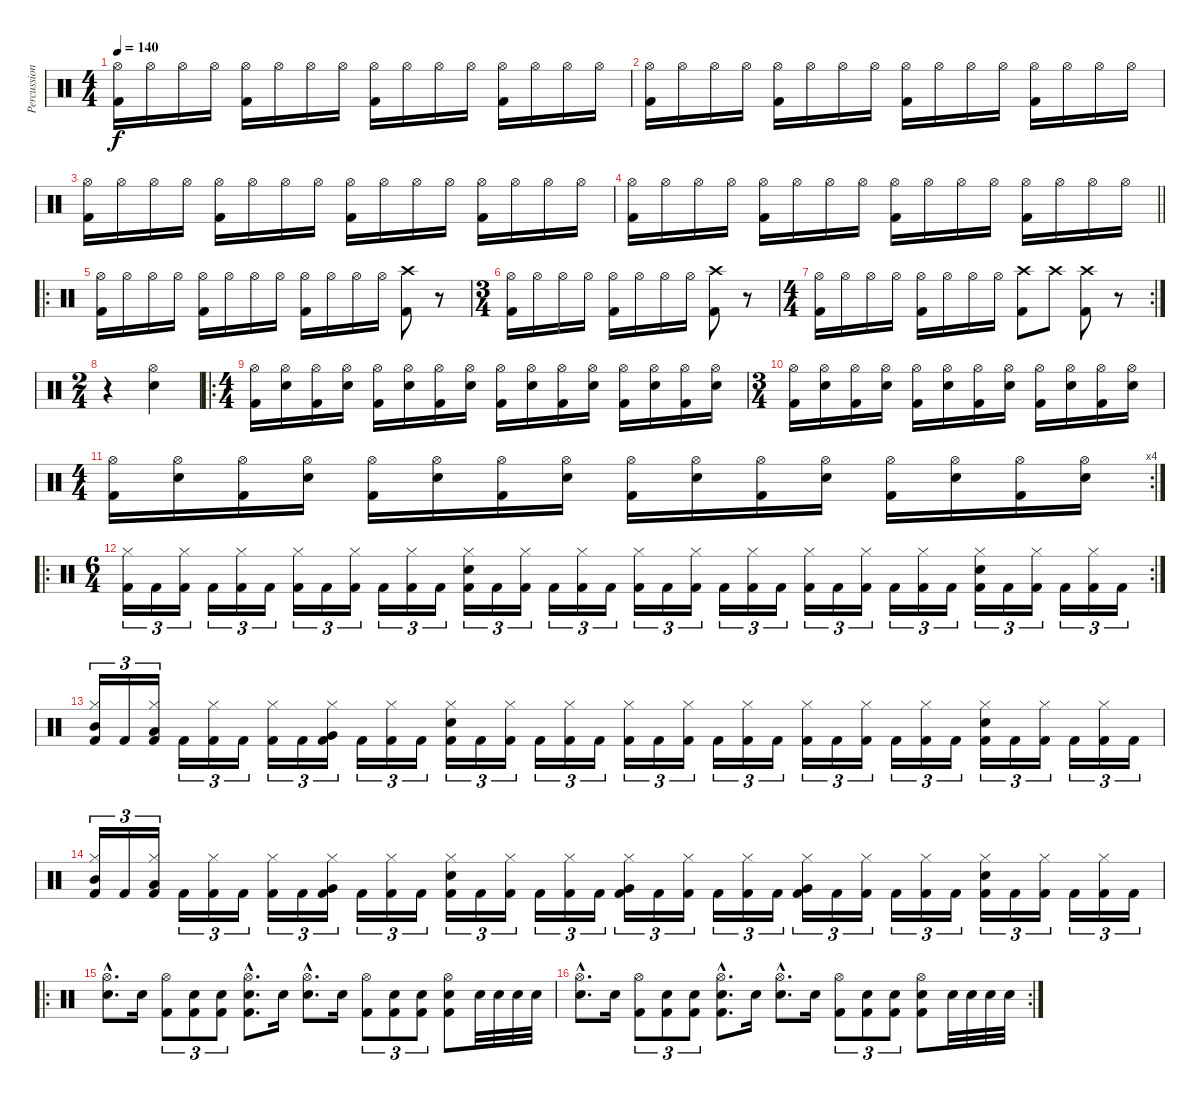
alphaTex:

\track ("Percussion" "Percussion") {instrument percussion}
\staff {score}
\articulation defaults
\ts (4 4)
\tempo 140
\clef neutral
\ks c
("Hi-Hat (open)" "Kick (hit) 2").16{dy f} "Hi-Hat (open)".16 "Hi-Hat (open)".16 "Hi-Hat (open)".16 ("Hi-Hat (open)" "Kick (hit) 2").16 "Hi-Hat (open)".16 "Hi-Hat (open)".16 "Hi-Hat (open)".16 ("Hi-Hat (open)" "Kick (hit) 2").16 "Hi-Hat (open)".16 "Hi-Hat (open)".16 "Hi-Hat (open)".16 ("Hi-Hat (open)" "Kick (hit) 2").16 "Hi-Hat (open)".16 "Hi-Hat (open)".16 "Hi-Hat (open)".16 |
("Hi-Hat (open)" "Kick (hit) 2").16 "Hi-Hat (open)".16 "Hi-Hat (open)".16 "Hi-Hat (open)".16 ("Hi-Hat (open)" "Kick (hit) 2").16 "Hi-Hat (open)".16 "Hi-Hat (open)".16 "Hi-Hat (open)".16 ("Hi-Hat (open)" "Kick (hit) 2").16 "Hi-Hat (open)".16 "Hi-Hat (open)".16 "Hi-Hat (open)".16 ("Hi-Hat (open)" "Kick (hit) 2").16 "Hi-Hat (open)".16 "Hi-Hat (open)".16 "Hi-Hat (open)".16 |
("Hi-Hat (open)" "Kick (hit) 2").16 "Hi-Hat (open)".16 "Hi-Hat (open)".16 "Hi-Hat (open)".16 ("Hi-Hat (open)" "Kick (hit) 2").16 "Hi-Hat (open)".16 "Hi-Hat (open)".16 "Hi-Hat (open)".16 ("Hi-Hat (open)" "Kick (hit) 2").16 "Hi-Hat (open)".16 "Hi-Hat (open)".16 "Hi-Hat (open)".16 ("Hi-Hat (open)" "Kick (hit) 2").16 "Hi-Hat (open)".16 "Hi-Hat (open)".16 "Hi-Hat (open)".16 |
\barLineRight lightlight
("Hi-Hat (open)" "Kick (hit) 2").16 "Hi-Hat (open)".16 "Hi-Hat (open)".16 "Hi-Hat (open)".16 ("Hi-Hat (open)" "Kick (hit) 2").16 "Hi-Hat (open)".16 "Hi-Hat (open)".16 "Hi-Hat (open)".16 ("Hi-Hat (open)" "Kick (hit) 2").16 "Hi-Hat (open)".16 "Hi-Hat (open)".16 "Hi-Hat (open)".16 ("Hi-Hat (open)" "Kick (hit) 2").16 "Hi-Hat (open)".16 "Hi-Hat (open)".16 "Hi-Hat (open)".16 |
\ro
("Hi-Hat (open)" "Kick (hit) 2").16 "Hi-Hat (open)".16 "Hi-Hat (open)".16 "Hi-Hat (open)".16 ("Hi-Hat (open)" "Kick (hit) 2").16 "Hi-Hat (open)".16 "Hi-Hat (open)".16 "Hi-Hat (open)".16 ("Hi-Hat (open)" "Kick (hit) 2").16 "Hi-Hat (open)".16 "Hi-Hat (open)".16 "Hi-Hat (open)".16 ("Crash high (hit)" "Kick (hit) 2").8 r.8 |
\ts (3 4)
("Hi-Hat (open)" "Kick (hit) 2").16 "Hi-Hat (open)".16 "Hi-Hat (open)".16 "Hi-Hat (open)".16 ("Hi-Hat (open)" "Kick (hit) 2").16 "Hi-Hat (open)".16 "Hi-Hat (open)".16 "Hi-Hat (open)".16 ("Crash high (hit)" "Kick (hit) 2").8 r.8 |
\rc 2
\ts (4 4)
("Hi-Hat (open)" "Kick (hit) 2").16 "Hi-Hat (open)".16 "Hi-Hat (open)".16 "Hi-Hat (open)".16 ("Hi-Hat (open)" "Kick (hit) 2").16 "Hi-Hat (open)".16 "Hi-Hat (open)".16 "Hi-Hat (open)".16 ("Crash high (hit)" "Kick (hit) 2").8 "Crash high (hit)".8 ("Crash high (hit)" "Kick (hit) 2").8 r.8 |
\ts (2 4)
r.4 ("Hi-Hat (open)" "Snare (hit) 2").4 |
\ro
\ts (4 4)
("Hi-Hat (open)" "Kick (hit) 2").16 ("Hi-Hat (open)" "Snare (hit) 2").16 ("Hi-Hat (open)" "Kick (hit) 2").16 ("Hi-Hat (open)" "Snare (hit) 2").16 ("Hi-Hat (open)" "Kick (hit) 2").16 ("Hi-Hat (open)" "Snare (hit) 2").16 ("Hi-Hat (open)" "Kick (hit) 2").16 ("Hi-Hat (open)" "Snare (hit) 2").16 ("Hi-Hat (open)" "Kick (hit) 2").16 ("Hi-Hat (open)" "Snare (hit) 2").16 ("Hi-Hat (open)" "Kick (hit) 2").16 ("Hi-Hat (open)" "Snare (hit) 2").16 ("Hi-Hat (open)" "Kick (hit) 2").16 ("Hi-Hat (open)" "Snare (hit) 2").16 ("Hi-Hat (open)" "Kick (hit) 2").16 ("Hi-Hat (open)" "Snare (hit) 2").16 |
\ts (3 4)
("Hi-Hat (open)" "Kick (hit) 2").16 ("Hi-Hat (open)" "Snare (hit) 2").16 ("Hi-Hat (open)" "Kick (hit) 2").16 ("Hi-Hat (open)" "Snare (hit) 2").16 ("Hi-Hat (open)" "Kick (hit) 2").16 ("Hi-Hat (open)" "Snare (hit) 2").16 ("Hi-Hat (open)" "Kick (hit) 2").16 ("Hi-Hat (open)" "Snare (hit) 2").16 ("Hi-Hat (open)" "Kick (hit) 2").16 ("Hi-Hat (open)" "Snare (hit) 2").16 ("Hi-Hat (open)" "Kick (hit) 2").16 ("Hi-Hat (open)" "Snare (hit) 2").16 |
\rc 4
\ts (4 4)
("Hi-Hat (open)" "Kick (hit) 2").16 ("Hi-Hat (open)" "Snare (hit) 2").16 ("Hi-Hat (open)" "Kick (hit) 2").16 ("Hi-Hat (open)" "Snare (hit) 2").16 ("Hi-Hat (open)" "Kick (hit) 2").16 ("Hi-Hat (open)" "Snare (hit) 2").16 ("Hi-Hat (open)" "Kick (hit) 2").16 ("Hi-Hat (open)" "Snare (hit) 2").16 ("Hi-Hat (open)" "Kick (hit) 2").16 ("Hi-Hat (open)" "Snare (hit) 2").16 ("Hi-Hat (open)" "Kick (hit) 2").16 ("Hi-Hat (open)" "Snare (hit) 2").16 ("Hi-Hat (open)" "Kick (hit) 2").16 ("Hi-Hat (open)" "Snare (hit) 2").16 ("Hi-Hat (open)" "Kick (hit) 2").16 ("Hi-Hat (open)" "Snare (hit) 2").16 |
\ro
\rc 2
\ts (6 4)
("Hi-Hat (closed)" "Kick (hit) 2").16{tu (3 2)} "Kick (hit) 2".16{tu (3 2)} ("Hi-Hat (closed)" "Kick (hit) 2").16{tu (3 2)} "Kick (hit) 2".16{tu (3 2)} ("Hi-Hat (closed)" "Kick (hit) 2").16{tu (3 2)} "Kick (hit) 2".16{tu (3 2)} ("Hi-Hat (closed)" "Kick (hit) 2").16{tu (3 2)} "Kick (hit) 2".16{tu (3 2)} ("Hi-Hat (closed)" "Kick (hit) 2").16{tu (3 2)} "Kick (hit) 2".16{tu (3 2)} ("Hi-Hat (closed)" "Kick (hit) 2").16{tu (3 2)} "Kick (hit) 2".16{tu (3 2)} ("Hi-Hat (closed)" "Snare (hit) 2" "Kick (hit) 2").16{tu (3 2)} "Kick (hit) 2".16{tu (3 2)} ("Hi-Hat (closed)" "Kick (hit) 2").16{tu (3 2)} "Kick (hit) 2".16{tu (3 2)} ("Hi-Hat (closed)" "Kick (hit) 2").16{tu (3 2)} "Kick (hit) 2".16{tu (3 2)} ("Hi-Hat (closed)" "Kick (hit) 2").16{tu (3 2)} "Kick (hit) 2".16{tu (3 2)} ("Hi-Hat (closed)" "Kick (hit) 2").16{tu (3 2)} "Kick (hit) 2".16{tu (3 2)} ("Hi-Hat (closed)" "Kick (hit) 2").16{tu (3 2)} "Kick (hit) 2".16{tu (3 2)} ("Hi-Hat (closed)" "Kick (hit) 2").16{tu (3 2)} "Kick (hit) 2".16{tu (3 2)} ("Hi-Hat (closed)" "Kick (hit) 2").16{tu (3 2)} "Kick (hit) 2".16{tu (3 2)} ("Hi-Hat (closed)" "Kick (hit) 2").16{tu (3 2)} "Kick (hit) 2".16{tu (3 2)} ("Hi-Hat (closed)" "Snare (hit) 2" "Kick (hit) 2").16{tu (3 2)} "Kick (hit) 2".16{tu (3 2)} ("Hi-Hat (closed)" "Kick (hit) 2").16{tu (3 2)} "Kick (hit) 2".16{tu (3 2)} ("Hi-Hat (closed)" "Kick (hit) 2").16{tu (3 2)} "Kick (hit) 2".16{tu (3 2)} |
("Hi-Hat (closed)" "Mid Tom (hit)" "Kick (hit) 2").16{tu (3 2)} "Kick (hit) 2".16{tu (3 2)} ("Hi-Hat (closed)" "Low Tom (hit)" "Kick (hit) 2").16{tu (3 2)} "Kick (hit) 2".16{tu (3 2)} ("Hi-Hat (closed)" "Kick (hit) 2").16{tu (3 2)} "Kick (hit) 2".16{tu (3 2)} ("Hi-Hat (closed)" "Kick (hit) 2").16{tu (3 2)} "Kick (hit) 2".16{tu (3 2)} ("Hi-Hat (closed)" "Very Low Tom (hit)" "Kick (hit) 2").16{tu (3 2)} "Kick (hit) 2".16{tu (3 2)} ("Hi-Hat (closed)" "Kick (hit) 2").16{tu (3 2)} "Kick (hit) 2".16{tu (3 2)} ("Hi-Hat (closed)" "Snare (hit) 2" "Kick (hit) 2").16{tu (3 2)} "Kick (hit) 2".16{tu (3 2)} ("Hi-Hat (closed)" "Kick (hit) 2").16{tu (3 2)} "Kick (hit) 2".16{tu (3 2)} ("Hi-Hat (closed)" "Kick (hit) 2").16{tu (3 2)} "Kick (hit) 2".16{tu (3 2)} ("Hi-Hat (closed)" "Kick (hit) 2").16{tu (3 2)} "Kick (hit) 2".16{tu (3 2)} ("Hi-Hat (closed)" "Kick (hit) 2").16{tu (3 2)} "Kick (hit) 2".16{tu (3 2)} ("Hi-Hat (closed)" "Kick (hit) 2").16{tu (3 2)} "Kick (hit) 2".16{tu (3 2)} ("Hi-Hat (closed)" "Kick (hit) 2").16{tu (3 2)} "Kick (hit) 2".16{tu (3 2)} ("Hi-Hat (closed)" "Kick (hit) 2").16{tu (3 2)} "Kick (hit) 2".16{tu (3 2)} ("Hi-Hat (closed)" "Kick (hit) 2").16{tu (3 2)} "Kick (hit) 2".16{tu (3 2)} ("Hi-Hat (closed)" "Snare (hit) 2" "Kick (hit) 2").16{tu (3 2)} "Kick (hit) 2".16{tu (3 2)} ("Hi-Hat (closed)" "Kick (hit) 2").16{tu (3 2)} "Kick (hit) 2".16{tu (3 2)} ("Hi-Hat (closed)" "Kick (hit) 2").16{tu (3 2)} "Kick (hit) 2".16{tu (3 2)} |
("Hi-Hat (closed)" "Mid Tom (hit)" "Kick (hit) 2").16{tu (3 2)} "Kick (hit) 2".16{tu (3 2)} ("Hi-Hat (closed)" "Low Tom (hit)" "Kick (hit) 2").16{tu (3 2)} "Kick (hit) 2".16{tu (3 2)} ("Hi-Hat (closed)" "Kick (hit) 2").16{tu (3 2)} "Kick (hit) 2".16{tu (3 2)} ("Hi-Hat (closed)" "Kick (hit) 2").16{tu (3 2)} "Kick (hit) 2".16{tu (3 2)} ("Hi-Hat (closed)" "Very Low Tom (hit)" "Kick (hit) 2").16{tu (3 2)} "Kick (hit) 2".16{tu (3 2)} ("Hi-Hat (closed)" "Kick (hit) 2").16{tu (3 2)} "Kick (hit) 2".16{tu (3 2)} ("Hi-Hat (closed)" "Snare (hit) 2" "Kick (hit) 2").16{tu (3 2)} "Kick (hit) 2".16{tu (3 2)} ("Hi-Hat (closed)" "Kick (hit) 2").16{tu (3 2)} "Kick (hit) 2".16{tu (3 2)} ("Hi-Hat (closed)" "Kick (hit) 2").16{tu (3 2)} "Kick (hit) 2".16{tu (3 2)} ("Hi-Hat (closed)" "Very Low Tom (hit)" "Kick (hit) 2").16{tu (3 2)} "Kick (hit) 2".16{tu (3 2)} ("Hi-Hat (closed)" "Kick (hit) 2").16{tu (3 2)} "Kick (hit) 2".16{tu (3 2)} ("Hi-Hat (closed)" "Kick (hit) 2").16{tu (3 2)} "Kick (hit) 2".16{tu (3 2)} ("Hi-Hat (closed)" "Very Low Tom (hit)" "Kick (hit) 2").16{tu (3 2)} "Kick (hit) 2".16{tu (3 2)} ("Hi-Hat (closed)" "Kick (hit) 2").16{tu (3 2)} "Kick (hit) 2".16{tu (3 2)} ("Hi-Hat (closed)" "Kick (hit) 2").16{tu (3 2)} "Kick (hit) 2".16{tu (3 2)} ("Hi-Hat (closed)" "Snare (hit) 2" "Kick (hit) 2").16{tu (3 2)} "Kick (hit) 2".16{tu (3 2)} ("Hi-Hat (closed)" "Kick (hit) 2").16{tu (3 2)} "Kick (hit) 2".16{tu (3 2)} ("Hi-Hat (closed)" "Kick (hit) 2").16{tu (3 2)} "Kick (hit) 2".16{tu (3 2)} |
\ro
("Hi-Hat (open)"{hac} "Snare (hit) 2"{hac}).8{d} "Snare (hit) 2".16 ("Hi-Hat (open)" "Kick (hit) 2").8{tu (3 2)} ("Snare (hit) 2" "Kick (hit) 2").8{tu (3 2)} ("Snare (hit) 2" "Kick (hit) 2").8{tu (3 2)} ("Hi-Hat (open)"{hac} "Snare (hit) 2"{hac} "Kick (hit) 2"{hac}).8{d} "Snare (hit) 2".16 ("Hi-Hat (open)"{hac} "Snare (hit) 2"{hac}).8{d} "Snare (hit) 2".16 ("Hi-Hat (open)" "Kick (hit) 2").8{tu (3 2)} ("Snare (hit) 2" "Kick (hit) 2").8{tu (3 2)} ("Snare (hit) 2" "Kick (hit) 2").8{tu (3 2)} ("Hi-Hat (open)" "Snare (hit) 2" "Kick (hit) 2").8 "Snare (hit) 2".32 "Snare (hit) 2".32 "Snare (hit) 2".32 "Snare (hit) 2".32 |
\rc 2
("Hi-Hat (open)"{hac} "Snare (hit) 2"{hac}).8{d} "Snare (hit) 2".16 ("Hi-Hat (open)" "Kick (hit) 2").8{tu (3 2)} ("Snare (hit) 2" "Kick (hit) 2").8{tu (3 2)} ("Snare (hit) 2" "Kick (hit) 2").8{tu (3 2)} ("Hi-Hat (open)"{hac} "Snare (hit) 2"{hac} "Kick (hit) 2"{hac}).8{d} "Snare (hit) 2".16 ("Hi-Hat (open)"{hac} "Snare (hit) 2"{hac}).8{d} "Snare (hit) 2".16 ("Hi-Hat (open)" "Kick (hit) 2").8{tu (3 2)} ("Snare (hit) 2" "Kick (hit) 2").8{tu (3 2)} ("Snare (hit) 2" "Kick (hit) 2").8{tu (3 2)} ("Hi-Hat (open)" "Snare (hit) 2" "Kick (hit) 2").8 "Snare (hit) 2".32 "Snare (hit) 2".32 "Snare (hit) 2".32 "Snare (hit) 2".32
